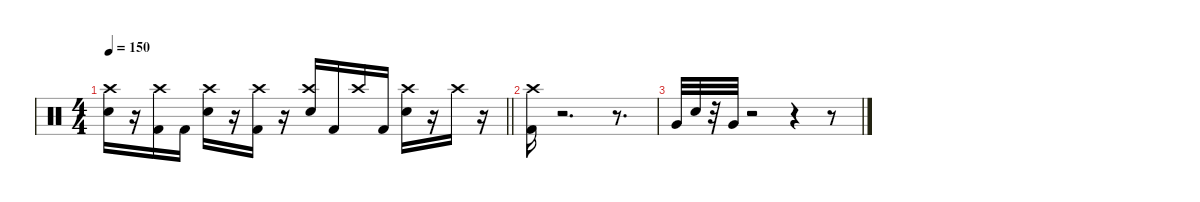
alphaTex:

\defaultSystemsLayout 4
\hideDynamics
\bracketExtendMode nobrackets
\singleTrackTrackNamePolicy hidden
\multiTrackTrackNamePolicy hidden
\firstSystemTrackNameMode fullname
\firstSystemTrackNameOrientation horizontal
\otherSystemsTrackNameOrientation horizontal
\track ("Bonzo" "drm.") {instrument percussion}
\staff {score}
\articulation defaults
\ts (4 4)
\tempo 150
\clef neutral
\barLineRight lightlight
\ks c
("Snare (hit) 2" "Crash high (hit)").16{dy fff beam Down} r.16{beam Down} ("Kick (hit) 2" "Crash high (hit)").16{beam Down} "Kick (hit) 2".16{beam Down} ("Snare (hit) 2" "Crash high (hit)").16{beam Down} r.16{beam Down} ("Kick (hit) 2" "Crash high (hit)").16{beam Down} r.16{beam Down} ("Snare (hit) 2" "Crash high (hit)").16{beam Up} "Kick (hit) 2".16{beam Up} "Crash high (hit)".16{dy ff beam Up} "Kick (hit) 2".16{dy fff beam Up} ("Snare (hit) 2" "Crash high (hit)").16{beam Down} r.16{beam Down} "Crash high (hit)".16{dy ff beam Down} r.16{beam Down} |
("Kick (hit) 2" "Crash high (hit)").16{dy fff beam Down} r.2{d beam Down} r.8{d beam Down} |
"Very Low Tom (hit)".32{beam Up} "Snare (hit) 2".32{beam Up} r.32{beam Up} "Very Low Tom (hit)".32{beam Up} r.2{beam Up} r.4{beam Up} r.8{beam Up}
